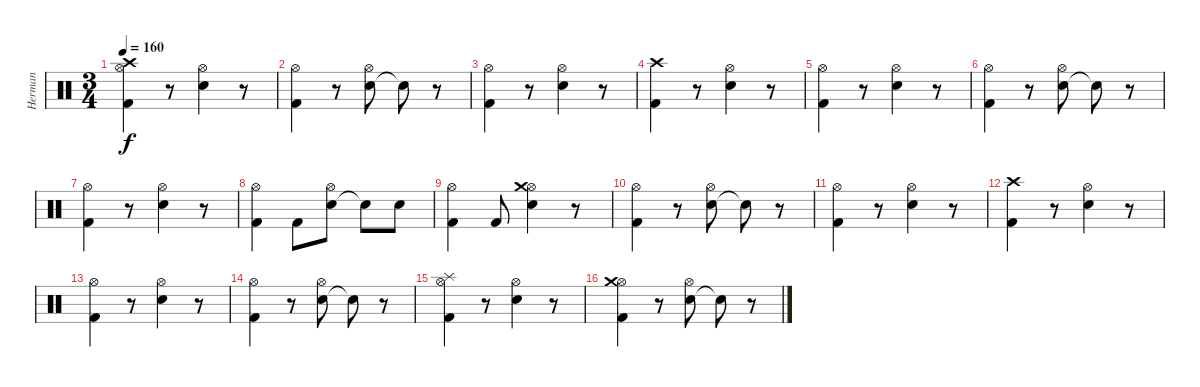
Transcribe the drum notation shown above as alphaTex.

\track ("Herman" "Herman") {instrument percussion}
\staff {score}
\articulation defaults
\ts (3 4)
\tempo 160
\clef neutral
\ks c
("Kick (hit) 2" "Hi-Hat (open)" "Crash high (hit)").4{dy f} r.8 ("Electric Snare (hit)" "Hi-Hat (open)").4 r.8 |
("Kick (hit) 2" "Hi-Hat (open)").4 r.8 ("Electric Snare (hit)" "Hi-Hat (open)").8 "Snare (hit)"{t}.8 r.8 |
("Kick (hit) 2" "Hi-Hat (open)").4 r.8 ("Electric Snare (hit)" "Hi-Hat (open)").4 r.8 |
("Kick (hit) 2" "Crash high (hit)").4 r.8 ("Electric Snare (hit)" "Hi-Hat (open)").4 r.8 |
("Kick (hit) 2" "Hi-Hat (open)").4 r.8 ("Electric Snare (hit)" "Hi-Hat (open)").4 r.8 |
("Kick (hit) 2" "Hi-Hat (open)").4 r.8 ("Electric Snare (hit)" "Hi-Hat (open)").8 "Snare (hit)"{t}.8 r.8 |
("Kick (hit) 2" "Hi-Hat (open)").4 r.8 ("Electric Snare (hit)" "Hi-Hat (open)").4 r.8 |
("Kick (hit) 2" "Hi-Hat (open)").4 "Kick (hit) 2".8 ("Electric Snare (hit)" "Hi-Hat (open)").8 "Snare (hit)"{t}.8 "Electric Snare (hit)".8 |
("Kick (hit) 2" "Hi-Hat (open)").4 "Kick (hit) 2".8 ("Electric Snare (hit)" "Hi-Hat (open)" "Crash medium (hit)").4 r.8 |
("Kick (hit) 2" "Hi-Hat (open)").4 r.8 ("Electric Snare (hit)" "Hi-Hat (open)").8 "Snare (hit)"{t}.8 r.8 |
("Kick (hit) 2" "Hi-Hat (open)").4 r.8 ("Electric Snare (hit)" "Hi-Hat (open)").4 r.8 |
("Kick (hit) 2" "Crash high (hit)").4 r.8 ("Electric Snare (hit)" "Hi-Hat (open)").4 r.8 |
("Kick (hit) 2" "Hi-Hat (open)").4 r.8 ("Electric Snare (hit)" "Hi-Hat (open)").4 r.8 |
("Kick (hit) 2" "Hi-Hat (open)").4 r.8 ("Electric Snare (hit)" "Hi-Hat (open)").8 "Snare (hit)"{t}.8 r.8 |
("Kick (hit) 2" "Hi-Hat (open)" "Splash (hit)").4 r.8 ("Electric Snare (hit)" "Hi-Hat (open)").4 r.8 |
("Kick (hit) 2" "Hi-Hat (open)" "Crash medium (hit)").4 r.8 ("Electric Snare (hit)" "Hi-Hat (open)").8 "Snare (hit)"{t}.8 r.8
